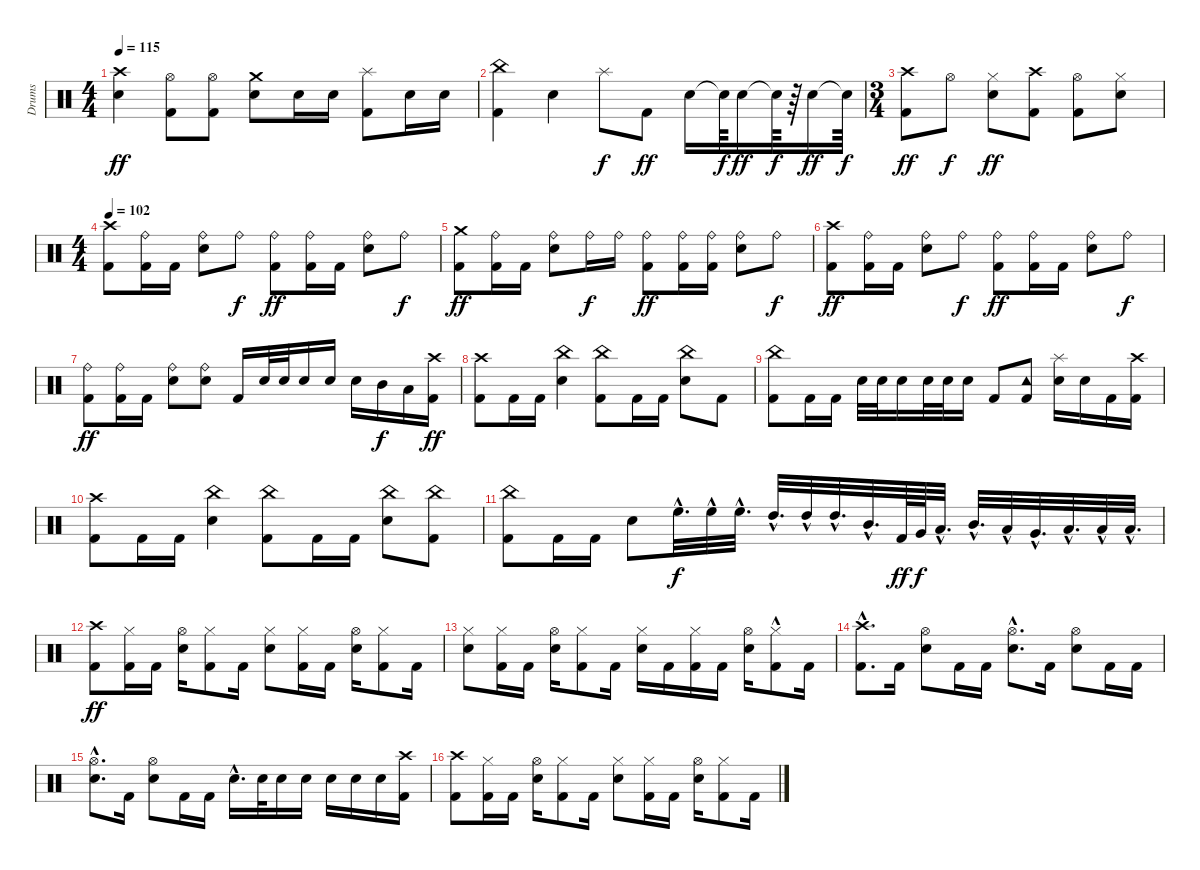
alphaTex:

\track ("Drums" "Drums") {instrument percussion}
\staff {score}
\articulation defaults
\ts (4 4)
\tempo 115
\clef neutral
\ks c
("Crash high (hit)" "Electric Snare (hit)").4{dy ff} ("Hi-Hat (open)" "Kick (hit) 2").8 ("Hi-Hat (open)" "Kick (hit) 2").8 ("Crash medium (hit)" "Electric Snare (hit)").8 "Electric Snare (hit)".16 "Electric Snare (hit)".16 ("Splash (hit)" "Kick (hit) 2").8 "Electric Snare (hit)".16 "Electric Snare (hit)".16 |
("China (hit)" "Kick (hit) 2").4 "Electric Snare (hit)".4 "Splash (hit)".8{dy f} "Kick (hit) 2".8{dy ff} "Electric Snare (hit)".16 "Snare (hit)"{t}.64{dy f} "Electric Snare (hit)".16{dy ff} "Snare (hit)"{t}.64{dy f} r.64 "Electric Snare (hit)".16{dy ff} "Snare (hit)"{t}.64{dy f} |
\ts (3 4)
("Crash high (hit)" "Kick (hit) 2").8{dy ff} "Hi-Hat (open)".8{dy f} ("Hi-Hat (closed)" "Electric Snare (hit)").8{dy ff} ("Crash high (hit)" "Kick (hit) 2").8 ("Hi-Hat (open)" "Kick (hit) 2").8 ("Hi-Hat (closed)" "Electric Snare (hit)").8 |
\ts (4 4)
\tempo 102
("Crash high (hit)" "Kick (hit) 2").8 ("Ride (bell)" "Kick (hit) 2").16 "Kick (hit) 2".16 ("Ride (bell)" "Electric Snare (hit)").8 "Ride (bell)".8{dy f} ("Ride (bell)" "Kick (hit) 2").8{dy ff} ("Ride (bell)" "Kick (hit) 2").16 "Kick (hit) 2".16 ("Ride (bell)" "Electric Snare (hit)").8 "Ride (bell)".8{dy f} |
("Crash medium (hit)" "Kick (hit) 2").8{dy ff} ("Ride (bell)" "Kick (hit) 2").16 "Kick (hit) 2".16 ("Ride (bell)" "Electric Snare (hit)").8 "Ride (bell)".16{dy f} "Ride (bell)".16 ("Ride (bell)" "Kick (hit) 2").8{dy ff} ("Ride (bell)" "Kick (hit) 2").16 ("Ride (bell)" "Kick (hit) 2").16 ("Ride (bell)" "Electric Snare (hit)").8 "Ride (bell)".8{dy f} |
("Crash high (hit)" "Kick (hit) 2").8{dy ff} ("Ride (bell)" "Kick (hit) 2").16 "Kick (hit) 2".16 ("Ride (bell)" "Electric Snare (hit)").8 "Ride (bell)".8{dy f} ("Ride (bell)" "Kick (hit) 2").8{dy ff} ("Ride (bell)" "Kick (hit) 2").16 "Kick (hit) 2".16 ("Ride (bell)" "Electric Snare (hit)").8 "Ride (bell)".8{dy f} |
("Ride (bell)" "Kick (hit) 2").8{dy ff} ("Ride (bell)" "Kick (hit) 2").16 "Kick (hit) 2".16 ("Ride (bell)" "Electric Snare (hit)").8 ("Ride (bell)" "Electric Snare (hit)").8 "Kick (hit) 2".16 "Electric Snare (hit)".32 "Electric Snare (hit)".32 "Electric Snare (hit)".16 "Electric Snare (hit)".16 "Electric Snare (hit)".16 "Mid Tom (hit)".16{dy f} "Low Tom (hit)".16 ("Crash high (hit)" "Kick (hit) 2").16{dy ff} |
("Crash high (hit)" "Kick (hit) 2").8 "Kick (hit) 2".16 "Kick (hit) 2".16 ("China (hit)" "Electric Snare (hit)").4 ("Kick (hit) 2" "China (hit)").8 "Kick (hit) 2".16 "Kick (hit) 2".16 ("China (hit)" "Electric Snare (hit)").8 "Kick (hit) 2".8 |
("China (hit)" "Kick (hit) 2").8 "Kick (hit) 2".16 "Kick (hit) 2".16 "Electric Snare (hit)".32 "Electric Snare (hit)".32 "Electric Snare (hit)".16 "Electric Snare (hit)".32 "Electric Snare (hit)".32 "Electric Snare (hit)".16 "Kick (hit) 2".8 ("Kick (hit) 2" "Tambourine (hit)").8 ("Splash (hit)" "Electric Snare (hit)").16 "Electric Snare (hit)".16 "Kick (hit) 2".16 ("Crash high (hit)" "Kick (hit) 2").16 |
("Crash high (hit)" "Kick (hit) 2").8 "Kick (hit) 2".16 "Kick (hit) 2".16 ("China (hit)" "Electric Snare (hit)").4 ("China (hit)" "Kick (hit) 2").8 "Kick (hit) 2".16 "Kick (hit) 2".16 ("China (hit)" "Electric Snare (hit)").8 ("China (hit)" "Kick (hit) 2").8 |
("China (hit)" "Kick (hit) 2").8 "Kick (hit) 2".16 "Kick (hit) 2".16 "Electric Snare (hit)".8 "High Floor Tom (hit)"{hac}.32{d dy f} "High Floor Tom (hit)"{hac}.32 "High Floor Tom (hit)"{hac}.32{d} "High Tom (hit)"{hac}.32{d} "High Tom (hit)"{hac}.32 "High Tom (hit)"{hac}.32{d} "Mid Tom (hit)"{hac}.32{d} "Kick (hit) 2".64{dy ff} "Very Low Tom (hit)".64{dy f} "Low Tom (hit)"{hac}.32{d} "Mid Tom (hit)"{hac}.32{d} "Low Tom (hit)"{hac}.32 "Very Low Tom (hit)"{hac}.32{d} "Low Floor Tom (hit)"{hac}.32{d} "Low Floor Tom (hit)"{hac}.32 "Low Floor Tom (hit)"{hac}.32{d} |
("Crash high (hit)" "Kick (hit) 2").8{dy ff} ("Hi-Hat (closed)" "Kick (hit) 2").16 "Kick (hit) 2".16 ("Hi-Hat (open)" "Electric Snare (hit)").16 ("Hi-Hat (closed)" "Kick (hit) 2").8 "Kick (hit) 2".16 ("Hi-Hat (closed)" "Electric Snare (hit)").8 ("Hi-Hat (closed)" "Kick (hit) 2").16 "Kick (hit) 2".16 ("Hi-Hat (open)" "Electric Snare (hit)").16 ("Hi-Hat (closed)" "Kick (hit) 2").8 "Kick (hit) 2".16 |
("Hi-Hat (closed)" "Electric Snare (hit)").8 ("Hi-Hat (closed)" "Kick (hit) 2").16 "Kick (hit) 2".16 ("Hi-Hat (open)" "Electric Snare (hit)").16 ("Hi-Hat (closed)" "Kick (hit) 2").8 "Kick (hit) 2".16 ("Hi-Hat (closed)" "Electric Snare (hit)").16 "Kick (hit) 2".16 ("Hi-Hat (closed)" "Kick (hit) 2").16 "Kick (hit) 2".16 ("Hi-Hat (open)" "Electric Snare (hit)").16 ("Hi-Hat (closed)"{hac} "Kick (hit) 2").8 "Kick (hit) 2".16 |
("Crash high (hit)" "Kick (hit) 2"{hac}).8{d} "Kick (hit) 2".16 ("Hi-Hat (open)" "Electric Snare (hit)").8 "Kick (hit) 2".16 "Kick (hit) 2".16 ("Hi-Hat (open)" "Electric Snare (hit)"{hac}).8{d} "Kick (hit) 2".16 ("Hi-Hat (open)" "Electric Snare (hit)").8 "Kick (hit) 2".16 "Kick (hit) 2".16 |
("Hi-Hat (open)" "Electric Snare (hit)"{hac}).8{d} "Kick (hit) 2".16 ("Hi-Hat (open)" "Electric Snare (hit)").8 "Kick (hit) 2".16 "Kick (hit) 2".16 "Electric Snare (hit)"{hac}.16{d} "Electric Snare (hit)".32 "Electric Snare (hit)".16 "Electric Snare (hit)".16 "Electric Snare (hit)".16 "Electric Snare (hit)".16 "Electric Snare (hit)".16 ("Crash high (hit)" "Kick (hit) 2").16 |
("Crash high (hit)" "Kick (hit) 2").8 ("Hi-Hat (closed)" "Kick (hit) 2").16 "Kick (hit) 2".16 ("Hi-Hat (open)" "Electric Snare (hit)").16 ("Hi-Hat (closed)" "Kick (hit) 2").8 "Kick (hit) 2".16 ("Hi-Hat (closed)" "Electric Snare (hit)").8 ("Hi-Hat (closed)" "Kick (hit) 2").16 "Kick (hit) 2".16 ("Hi-Hat (open)" "Electric Snare (hit)").16 ("Hi-Hat (closed)" "Kick (hit) 2").8 "Kick (hit) 2".16
